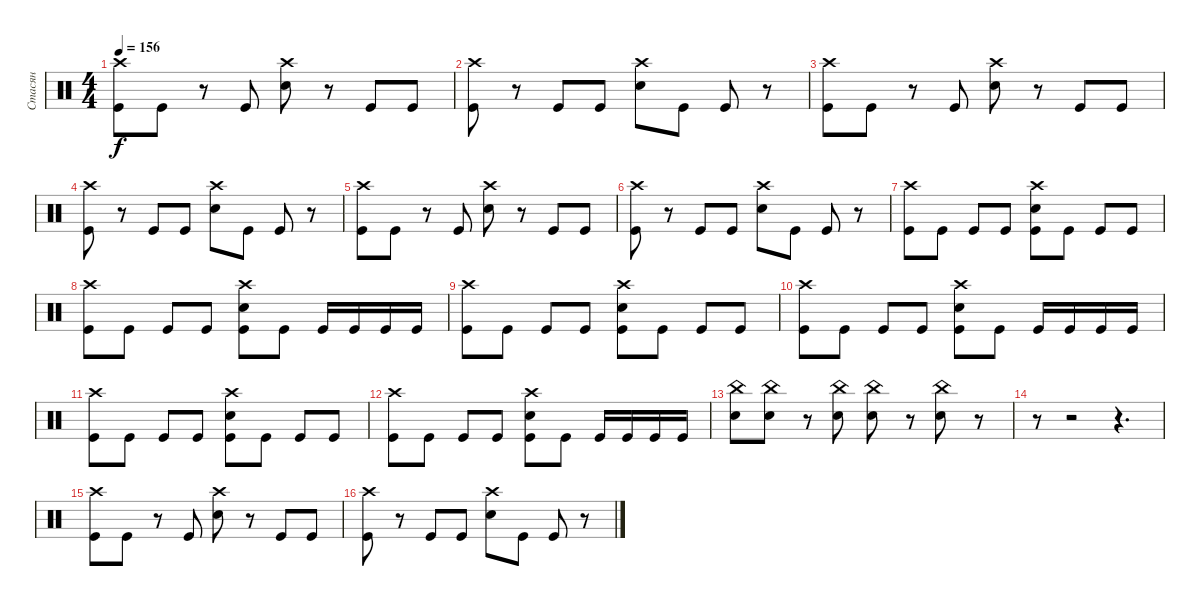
\track ("Стасян" "Стасян") {instrument percussion}
\staff
\articulation defaults
\ts (4 4)
\tempo 156
\clef neutral
\ks c
("Crash high (hit)" "Kick (hit)").8{dy f} "Kick (hit)".8 r.8 "Kick (hit)".8 ("Crash high (hit)" "Snare (hit) 2").8 r.8 "Kick (hit)".8 "Kick (hit)".8 |
("Crash high (hit)" "Kick (hit)").8 r.8 "Kick (hit)".8 "Kick (hit)".8 ("Crash high (hit)" "Snare (hit) 2").8 "Kick (hit)".8 "Kick (hit)".8 r.8 |
("Crash high (hit)" "Kick (hit)").8 "Kick (hit)".8 r.8 "Kick (hit)".8 ("Crash high (hit)" "Snare (hit) 2").8 r.8 "Kick (hit)".8 "Kick (hit)".8 |
("Crash high (hit)" "Kick (hit)").8 r.8 "Kick (hit)".8 "Kick (hit)".8 ("Crash high (hit)" "Snare (hit) 2").8 "Kick (hit)".8 "Kick (hit)".8 r.8 |
("Crash high (hit)" "Kick (hit)").8 "Kick (hit)".8 r.8 "Kick (hit)".8 ("Crash high (hit)" "Snare (hit) 2").8 r.8 "Kick (hit)".8 "Kick (hit)".8 |
("Crash high (hit)" "Kick (hit)").8 r.8 "Kick (hit)".8 "Kick (hit)".8 ("Crash high (hit)" "Snare (hit) 2").8 "Kick (hit)".8 "Kick (hit)".8 r.8 |
("Crash high (hit)" "Kick (hit)").8 "Kick (hit)".8 "Kick (hit)".8 "Kick (hit)".8 ("Crash high (hit)" "Snare (hit) 2" "Kick (hit)").8 "Kick (hit)".8 "Kick (hit)".8 "Kick (hit)".8 |
("Crash high (hit)" "Kick (hit)").8 "Kick (hit)".8 "Kick (hit)".8 "Kick (hit)".8 ("Crash high (hit)" "Snare (hit) 2" "Kick (hit)").8 "Kick (hit)".8 "Kick (hit)".16 "Kick (hit)".16 "Kick (hit)".16 "Kick (hit)".16 |
("Crash high (hit)" "Kick (hit)").8 "Kick (hit)".8 "Kick (hit)".8 "Kick (hit)".8 ("Crash high (hit)" "Snare (hit) 2" "Kick (hit)").8 "Kick (hit)".8 "Kick (hit)".8 "Kick (hit)".8 |
("Crash high (hit)" "Kick (hit)").8 "Kick (hit)".8 "Kick (hit)".8 "Kick (hit)".8 ("Crash high (hit)" "Snare (hit) 2" "Kick (hit)").8 "Kick (hit)".8 "Kick (hit)".16 "Kick (hit)".16 "Kick (hit)".16 "Kick (hit)".16 |
("Crash high (hit)" "Kick (hit)").8 "Kick (hit)".8 "Kick (hit)".8 "Kick (hit)".8 ("Crash high (hit)" "Snare (hit) 2" "Kick (hit)").8 "Kick (hit)".8 "Kick (hit)".8 "Kick (hit)".8 |
("Crash high (hit)" "Kick (hit)").8 "Kick (hit)".8 "Kick (hit)".8 "Kick (hit)".8 ("Crash high (hit)" "Snare (hit) 2" "Kick (hit)").8 "Kick (hit)".8 "Kick (hit)".16 "Kick (hit)".16 "Kick (hit)".16 "Kick (hit)".16 |
("China (hit)" "Snare (hit) 2").8 ("China (hit)" "Snare (hit) 2").8 r.8 ("China (hit)" "Snare (hit) 2").8 ("China (hit)" "Snare (hit) 2").8 r.8 ("China (hit)" "Snare (hit) 2").8 r.8 |
r.8 r.2 r.4{d} |
("Crash high (hit)" "Kick (hit)").8 "Kick (hit)".8 r.8 "Kick (hit)".8 ("Crash high (hit)" "Snare (hit) 2").8 r.8 "Kick (hit)".8 "Kick (hit)".8 |
("Crash high (hit)" "Kick (hit)").8 r.8 "Kick (hit)".8 "Kick (hit)".8 ("Crash high (hit)" "Snare (hit) 2").8 "Kick (hit)".8 "Kick (hit)".8 r.8
